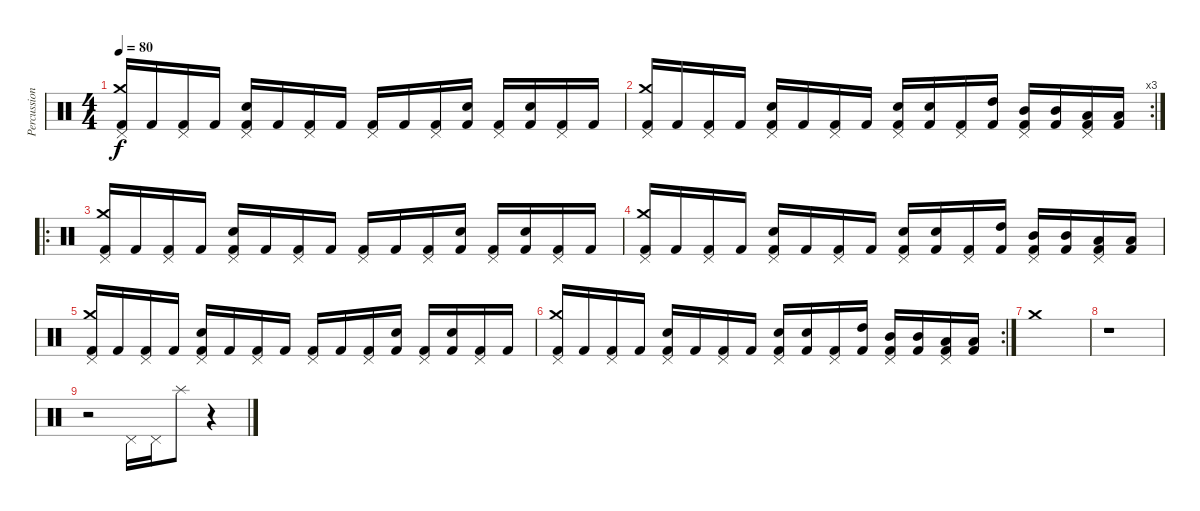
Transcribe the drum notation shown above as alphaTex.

\track ("Percussion" "Percussion") {instrument percussion}
\staff {score}
\articulation defaults
\ts (4 4)
\tempo 80
\clef neutral
\ks c
("Pedal Hi-Hat (hit)" "Crash medium (hit)" "Kick (hit) 2").16{dy f} "Kick (hit) 2".16 ("Pedal Hi-Hat (hit)" "Kick (hit) 2").16 "Kick (hit) 2".16 ("Pedal Hi-Hat (hit)" "Electric Snare (hit)" "Kick (hit) 2").16 "Kick (hit) 2".16 ("Pedal Hi-Hat (hit)" "Kick (hit) 2").16 "Kick (hit) 2".16 ("Pedal Hi-Hat (hit)" "Kick (hit) 2").16 "Kick (hit) 2".16 ("Pedal Hi-Hat (hit)" "Kick (hit) 2").16 ("Snare (hit) 2" "Kick (hit) 2").16 ("Pedal Hi-Hat (hit)" "Kick (hit) 2").16 ("Snare (hit) 2" "Kick (hit) 2").16 ("Pedal Hi-Hat (hit)" "Kick (hit) 2").16 "Kick (hit) 2".16 |
\rc 3
("Pedal Hi-Hat (hit)" "Crash medium (hit)" "Kick (hit) 2").16 "Kick (hit) 2".16 ("Pedal Hi-Hat (hit)" "Kick (hit) 2").16 "Kick (hit) 2".16 ("Pedal Hi-Hat (hit)" "Electric Snare (hit)" "Kick (hit) 2").16 "Kick (hit) 2".16 ("Pedal Hi-Hat (hit)" "Kick (hit) 2").16 "Kick (hit) 2".16 ("Pedal Hi-Hat (hit)" "Snare (hit) 2" "Kick (hit) 2").16 ("Snare (hit) 2" "Kick (hit) 2").16 ("Pedal Hi-Hat (hit)" "Kick (hit) 2").16 ("High Tom (hit)" "Kick (hit) 2").16 ("Pedal Hi-Hat (hit)" "Mid Tom (hit)" "Kick (hit) 2").16 ("Mid Tom (hit)" "Kick (hit) 2").16 ("Pedal Hi-Hat (hit)" "Low Tom (hit)" "Kick (hit) 2").16 ("Low Floor Tom (hit)" "Kick (hit) 2").16 |
\ro
("Pedal Hi-Hat (hit)" "Crash medium (hit)" "Kick (hit) 2").16 "Kick (hit) 2".16 ("Pedal Hi-Hat (hit)" "Kick (hit) 2").16 "Kick (hit) 2".16 ("Pedal Hi-Hat (hit)" "Electric Snare (hit)" "Kick (hit) 2").16 "Kick (hit) 2".16 ("Pedal Hi-Hat (hit)" "Kick (hit) 2").16 "Kick (hit) 2".16 ("Pedal Hi-Hat (hit)" "Kick (hit) 2").16 "Kick (hit) 2".16 ("Pedal Hi-Hat (hit)" "Kick (hit) 2").16 ("Snare (hit) 2" "Kick (hit) 2").16 ("Pedal Hi-Hat (hit)" "Kick (hit) 2").16 ("Snare (hit) 2" "Kick (hit) 2").16 ("Pedal Hi-Hat (hit)" "Kick (hit) 2").16 "Kick (hit) 2".16 |
("Pedal Hi-Hat (hit)" "Crash medium (hit)" "Kick (hit) 2").16 "Kick (hit) 2".16 ("Pedal Hi-Hat (hit)" "Kick (hit) 2").16 "Kick (hit) 2".16 ("Pedal Hi-Hat (hit)" "Electric Snare (hit)" "Kick (hit) 2").16 "Kick (hit) 2".16 ("Pedal Hi-Hat (hit)" "Kick (hit) 2").16 "Kick (hit) 2".16 ("Pedal Hi-Hat (hit)" "Snare (hit) 2" "Kick (hit) 2").16 ("Snare (hit) 2" "Kick (hit) 2").16 ("Pedal Hi-Hat (hit)" "Kick (hit) 2").16 ("High Tom (hit)" "Kick (hit) 2").16 ("Pedal Hi-Hat (hit)" "Mid Tom (hit)" "Kick (hit) 2").16 ("Mid Tom (hit)" "Kick (hit) 2").16 ("Pedal Hi-Hat (hit)" "Low Tom (hit)" "Kick (hit) 2").16 ("Low Floor Tom (hit)" "Kick (hit) 2").16 |
("Pedal Hi-Hat (hit)" "Crash medium (hit)" "Kick (hit) 2").16 "Kick (hit) 2".16 ("Pedal Hi-Hat (hit)" "Kick (hit) 2").16 "Kick (hit) 2".16 ("Pedal Hi-Hat (hit)" "Electric Snare (hit)" "Kick (hit) 2").16 "Kick (hit) 2".16 ("Pedal Hi-Hat (hit)" "Kick (hit) 2").16 "Kick (hit) 2".16 ("Pedal Hi-Hat (hit)" "Kick (hit) 2").16 "Kick (hit) 2".16 ("Pedal Hi-Hat (hit)" "Kick (hit) 2").16 ("Snare (hit) 2" "Kick (hit) 2").16 ("Pedal Hi-Hat (hit)" "Kick (hit) 2").16 ("Snare (hit) 2" "Kick (hit) 2").16 ("Pedal Hi-Hat (hit)" "Kick (hit) 2").16 "Kick (hit) 2".16 |
\rc 2
("Pedal Hi-Hat (hit)" "Crash medium (hit)" "Kick (hit) 2").16 "Kick (hit) 2".16 ("Pedal Hi-Hat (hit)" "Kick (hit) 2").16 "Kick (hit) 2".16 ("Pedal Hi-Hat (hit)" "Electric Snare (hit)" "Kick (hit) 2").16 "Kick (hit) 2".16 ("Pedal Hi-Hat (hit)" "Kick (hit) 2").16 "Kick (hit) 2".16 ("Pedal Hi-Hat (hit)" "Snare (hit) 2" "Kick (hit) 2").16 ("Snare (hit) 2" "Kick (hit) 2").16 ("Pedal Hi-Hat (hit)" "Kick (hit) 2").16 ("High Tom (hit)" "Kick (hit) 2").16 ("Pedal Hi-Hat (hit)" "Mid Tom (hit)" "Kick (hit) 2").16 ("Mid Tom (hit)" "Kick (hit) 2").16 ("Pedal Hi-Hat (hit)" "Low Tom (hit)" "Kick (hit) 2").16 ("Low Floor Tom (hit)" "Kick (hit) 2").16 |
"Crash medium (hit)".1 |
r.1 |
r.2 "Pedal Hi-Hat (hit)".16 "Pedal Hi-Hat (hit)".16 "Splash (hit)".8 r.4
